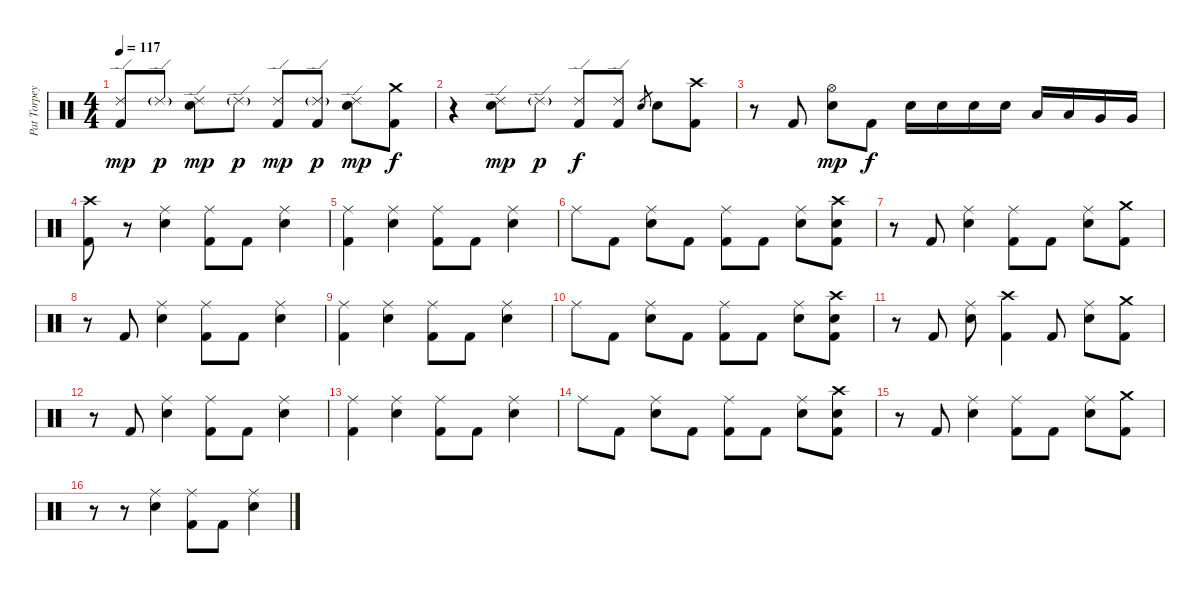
\track ("Pat Torpey" "Pat Torpey") {instrument percussion}
\staff {score}
\articulation defaults
\ts (4 4)
\tempo 117
\clef neutral
\ks c
("Ride (edge) 2" "Kick (hit) 2").8{dy mp} "Ride (edge) 2"{g}.8{dy p} ("Ride (edge) 2" "Electric Snare (hit)").8{dy mp} "Ride (edge) 2"{g}.8{dy p} ("Ride (edge) 2" "Kick (hit) 2").8{dy mp} ("Ride (edge) 2"{g} "Kick (hit) 2").8{dy p} ("Ride (edge) 2" "Electric Snare (hit)").8{dy mp} ("Crash medium (hit)" "Kick (hit) 2").8{dy f} |
r.4 ("Ride (edge) 2" "Electric Snare (hit)").8{dy mp} "Ride (edge) 2"{g}.8{dy p} ("Ride (edge) 2" "Kick (hit) 2").8{dy f} ("Ride (edge) 2" "Kick (hit) 2").8 "Electric Snare (hit)"{h}.8{gr} "Electric Snare (hit)".8 ("Crash high (hit)" "Kick (hit) 2").8 |
r.8 "Kick (hit) 2".8 ("Hi-Hat (open)" "Electric Snare (hit)").8{dy mp} "Kick (hit) 2".8{dy f} "Electric Snare (hit)".16 "Electric Snare (hit)".16 "Electric Snare (hit)".16 "Electric Snare (hit)".16 "Low Tom (hit)".16 "Low Tom (hit)".16 "Very Low Tom (hit)".16 "Very Low Tom (hit)".16 |
("Crash high (hit)" "Kick (hit) 2").8 r.8 ("Ride (middle)" "Electric Snare (hit)").4 ("Ride (middle)" "Kick (hit) 2").8 "Kick (hit) 2".8 ("Ride (middle)" "Electric Snare (hit)").4 |
("Ride (middle)" "Kick (hit) 2").4 ("Ride (middle)" "Electric Snare (hit)").4 ("Ride (middle)" "Kick (hit) 2").8 "Kick (hit) 2".8 ("Ride (middle)" "Electric Snare (hit)").4 |
"Ride (middle)".8 "Kick (hit) 2".8 ("Ride (middle)" "Electric Snare (hit)").8 "Kick (hit) 2".8 ("Ride (middle)" "Kick (hit) 2").8 "Kick (hit) 2".8 ("Ride (middle)" "Electric Snare (hit)").8 ("Crash high (hit)" "Electric Snare (hit)" "Kick (hit) 2").8 |
r.8 "Kick (hit) 2".8 ("Ride (middle)" "Electric Snare (hit)").4 ("Ride (middle)" "Kick (hit) 2").8 "Kick (hit) 2".8 ("Ride (middle)" "Electric Snare (hit)").8 ("Crash medium (hit)" "Kick (hit) 2").8 |
r.8 "Kick (hit) 2".8 ("Ride (middle)" "Electric Snare (hit)").4 ("Ride (middle)" "Kick (hit) 2").8 "Kick (hit) 2".8 ("Ride (middle)" "Electric Snare (hit)").4 |
("Ride (middle)" "Kick (hit) 2").4 ("Ride (middle)" "Electric Snare (hit)").4 ("Ride (middle)" "Kick (hit) 2").8 "Kick (hit) 2".8 ("Ride (middle)" "Electric Snare (hit)").4 |
"Ride (middle)".8 "Kick (hit) 2".8 ("Ride (middle)" "Electric Snare (hit)").8 "Kick (hit) 2".8 ("Ride (middle)" "Kick (hit) 2").8 "Kick (hit) 2".8 ("Ride (middle)" "Electric Snare (hit)").8 ("Crash high (hit)" "Electric Snare (hit)" "Kick (hit) 2").8 |
r.8 "Kick (hit) 2".8 ("Ride (middle)" "Electric Snare (hit)").8 ("Crash high (hit)" "Kick (hit) 2").4 "Kick (hit) 2".8 ("Ride (middle)" "Electric Snare (hit)").8 ("Crash medium (hit)" "Kick (hit) 2").8 |
r.8 "Kick (hit) 2".8 ("Ride (middle)" "Electric Snare (hit)").4 ("Ride (middle)" "Kick (hit) 2").8 "Kick (hit) 2".8 ("Ride (middle)" "Electric Snare (hit)").4 |
("Ride (middle)" "Kick (hit) 2").4 ("Ride (middle)" "Electric Snare (hit)").4 ("Ride (middle)" "Kick (hit) 2").8 "Kick (hit) 2".8 ("Ride (middle)" "Electric Snare (hit)").4 |
"Ride (middle)".8 "Kick (hit) 2".8 ("Ride (middle)" "Electric Snare (hit)").8 "Kick (hit) 2".8 ("Ride (middle)" "Kick (hit) 2").8 "Kick (hit) 2".8 ("Ride (middle)" "Electric Snare (hit)").8 ("Crash high (hit)" "Electric Snare (hit)" "Kick (hit) 2").8 |
r.8 "Kick (hit) 2".8 ("Ride (middle)" "Electric Snare (hit)").4 ("Ride (middle)" "Kick (hit) 2").8 "Kick (hit) 2".8 ("Ride (middle)" "Electric Snare (hit)").8 ("Crash medium (hit)" "Kick (hit) 2").8 |
r.8 r.8 ("Ride (middle)" "Electric Snare (hit)").4 ("Ride (middle)" "Kick (hit) 2").8 "Kick (hit) 2".8 ("Ride (middle)" "Electric Snare (hit)").4
